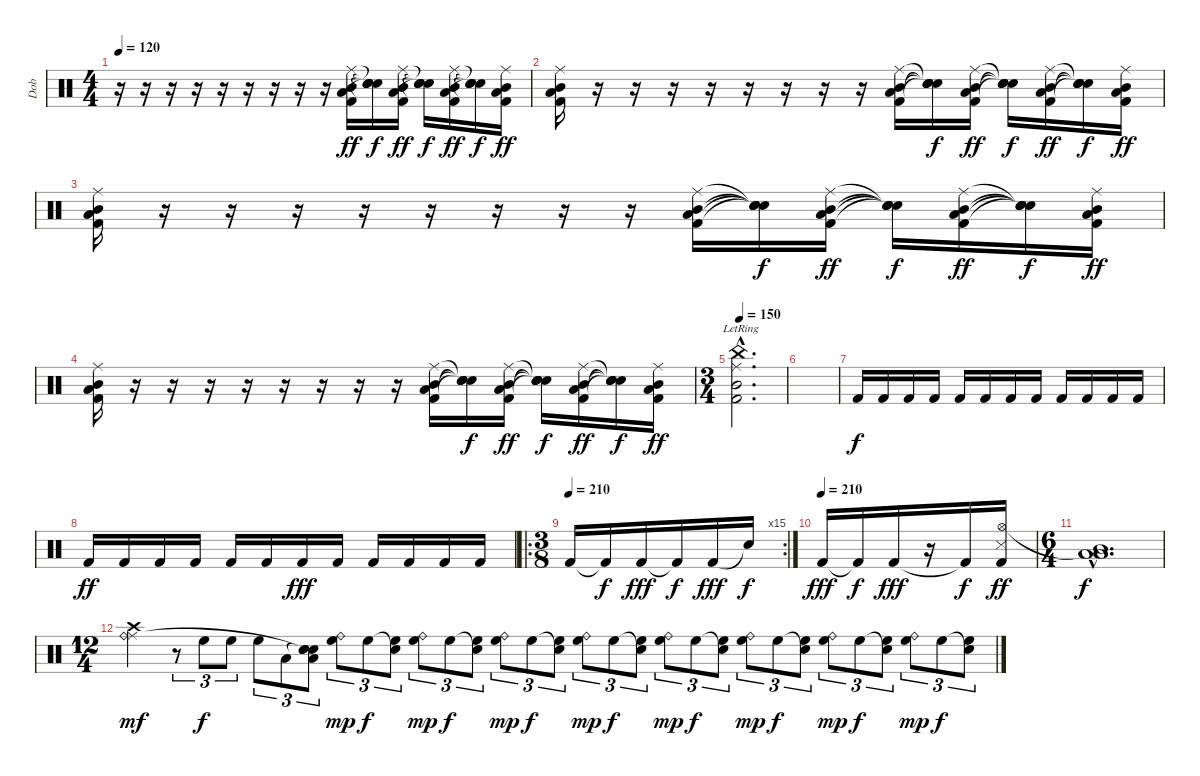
\track ("Dob" "Dob") {instrument percussion}
\staff {score}
\articulation defaults
\ts (4 4)
\tempo 120
\clef neutral
\ks c
r.16{dy ff} r.16 r.16 r.16 r.16 r.16 r.16 r.16 r.16 ("Ride (middle)" "Mid Tom (hit)" "Low Tom (hit)" "Kick (hit) 2").16 ("Snare (hit)"{t} "Snare (hit)"{t} "Snare (hit)"{t} "Snare (hit)"{t}).16{dy f} ("Ride (middle)" "Mid Tom (hit)" "Low Tom (hit)" "Kick (hit) 2").16{dy ff} ("Snare (hit)"{t} "Snare (hit)"{t} "Snare (hit)"{t} "Snare (hit)"{t}).16{dy f} ("Ride (middle)" "Mid Tom (hit)" "Low Tom (hit)" "Kick (hit) 2").16{dy ff} ("Snare (hit)"{t} "Snare (hit)"{t} "Snare (hit)"{t} "Snare (hit)"{t}).16{dy f} ("Ride (middle)" "Mid Tom (hit)" "Low Tom (hit)" "Kick (hit) 2").16{dy ff} |
("Ride (middle)" "Mid Tom (hit)" "Low Tom (hit)" "Kick (hit) 2").16 r.16 r.16 r.16 r.16 r.16 r.16 r.16 r.16 ("Ride (middle)" "Mid Tom (hit)" "Low Tom (hit)" "Kick (hit) 2").16 ("Snare (hit)"{t} "Snare (hit)"{t} "Snare (hit)"{t} "Snare (hit)"{t}).16{dy f} ("Ride (middle)" "Mid Tom (hit)" "Low Tom (hit)" "Kick (hit) 2").16{dy ff} ("Snare (hit)"{t} "Snare (hit)"{t} "Snare (hit)"{t} "Snare (hit)"{t}).16{dy f} ("Ride (middle)" "Mid Tom (hit)" "Low Tom (hit)" "Kick (hit) 2").16{dy ff} ("Snare (hit)"{t} "Snare (hit)"{t} "Snare (hit)"{t} "Snare (hit)"{t}).16{dy f} ("Ride (middle)" "Mid Tom (hit)" "Low Tom (hit)" "Kick (hit) 2").16{dy ff} |
("Ride (middle)" "Mid Tom (hit)" "Low Tom (hit)" "Kick (hit) 2").16 r.16 r.16 r.16 r.16 r.16 r.16 r.16 r.16 ("Ride (middle)" "Mid Tom (hit)" "Low Tom (hit)" "Kick (hit) 2").16 ("Snare (hit)"{t} "Snare (hit)"{t} "Snare (hit)"{t} "Snare (hit)"{t}).16{dy f} ("Ride (middle)" "Mid Tom (hit)" "Low Tom (hit)" "Kick (hit) 2").16{dy ff} ("Snare (hit)"{t} "Snare (hit)"{t} "Snare (hit)"{t} "Snare (hit)"{t}).16{dy f} ("Ride (middle)" "Mid Tom (hit)" "Low Tom (hit)" "Kick (hit) 2").16{dy ff} ("Snare (hit)"{t} "Snare (hit)"{t} "Snare (hit)"{t} "Snare (hit)"{t}).16{dy f} ("Ride (middle)" "Mid Tom (hit)" "Low Tom (hit)" "Kick (hit) 2").16{dy ff} |
("Ride (middle)" "Mid Tom (hit)" "Low Tom (hit)" "Kick (hit) 2").16 r.16 r.16 r.16 r.16 r.16 r.16 r.16 r.16 ("Ride (middle)" "Mid Tom (hit)" "Low Tom (hit)" "Kick (hit) 2").16 ("Snare (hit)"{t} "Snare (hit)"{t} "Snare (hit)"{t} "Snare (hit)"{t}).16{dy f} ("Ride (middle)" "Mid Tom (hit)" "Low Tom (hit)" "Kick (hit) 2").16{dy ff} ("Snare (hit)"{t} "Snare (hit)"{t} "Snare (hit)"{t} "Snare (hit)"{t}).16{dy f} ("Ride (middle)" "Mid Tom (hit)" "Low Tom (hit)" "Kick (hit) 2").16{dy ff} ("Snare (hit)"{t} "Snare (hit)"{t} "Snare (hit)"{t} "Snare (hit)"{t}).16{dy f} ("Ride (middle)" "Mid Tom (hit)" "Low Tom (hit)" "Kick (hit) 2").16{dy ff} |
\ts (3 4)
\tempo 150
("Ride (middle)"{hac lr} "China (hit)"{hac lr} "Mid Tom (hit)"{hac lr} "Kick (hit) 2"{hac lr}).2{d} |
|
"Kick (hit) 2".16{dy f volume 10} "Kick (hit) 2".16 "Kick (hit) 2".16 "Kick (hit) 2".16 "Kick (hit) 2".16 "Kick (hit) 2".16 "Kick (hit) 2".16 "Kick (hit) 2".16 "Kick (hit) 2".16 "Kick (hit) 2".16 "Kick (hit) 2".16 "Kick (hit) 2".16 |
"Kick (hit) 2".16{dy ff} "Kick (hit) 2".16 "Kick (hit) 2".16 "Kick (hit) 2".16 "Kick (hit) 2".16 "Kick (hit) 2".16 "Kick (hit) 2".16{dy fff} "Kick (hit) 2".16 "Kick (hit) 2".16 "Kick (hit) 2".16 "Kick (hit) 2".16 "Kick (hit) 2".16 |
\ro
\rc 15
\ts (3 8)
\tempo (210)
"Kick (hit) 2".16 "Kick (hit) 2"{t}.16{dy f} "Kick (hit) 2".16{dy fff} "Kick (hit) 2"{t}.16{dy f} "Kick (hit) 2".16{dy fff} "Snare (hit)"{t}.16{dy f} |
\tempo (210)
"Kick (hit) 2".16{dy fff} "Kick (hit) 2"{t}.16{dy f} "Kick (hit) 2".16{dy fff} r.16 "Kick (hit) 2"{t}.16{dy f} ("Hi-Hat (open)" "Snare (side stick) 3" "Kick (hit) 2").16{dy ff} |
\ts (6 4)
("Low Tom (hit)"{hac t} "Mid Tom (hit)"{hac} "Low Tom (hit)"{hac}).1{d dy f} |
\ts (12 4)
("Ride (middle)" "Ride (bell)" "Crash high (hit)").2{dy mf volume 4} r.8{tu (3 2)} "High Floor Tom (hit)".8{tu (3 2) dy f} "High Floor Tom (hit)".8{tu (3 2)} "High Floor Tom (hit)".8{tu (3 2)} "Low Tom (hit)".8{tu (3 2)} ("Snare (hit)"{t} "Snare (hit)"{t} "Low Floor Tom (hit)" "Snare (hit)").8{tu (3 2)} ("Ride (bell)" "High Floor Tom (hit)").8{tu (3 2) dy mp} "High Floor Tom (hit)".8{tu (3 2) dy f} ("Snare (hit)"{t} "High Floor Tom (hit)").8{tu (3 2)} ("Ride (bell)" "High Floor Tom (hit)").8{tu (3 2) dy mp} "High Floor Tom (hit)".8{tu (3 2) dy f} ("Snare (hit)"{t} "High Floor Tom (hit)").8{tu (3 2)} ("Ride (bell)" "High Floor Tom (hit)").8{tu (3 2) dy mp} "High Floor Tom (hit)".8{tu (3 2) dy f} ("Snare (hit)"{t} "High Floor Tom (hit)").8{tu (3 2)} ("Ride (bell)" "High Floor Tom (hit)").8{tu (3 2) dy mp} "High Floor Tom (hit)".8{tu (3 2) dy f} ("Snare (hit)"{t} "High Floor Tom (hit)").8{tu (3 2)} ("Ride (bell)" "High Floor Tom (hit)").8{tu (3 2) dy mp} "High Floor Tom (hit)".8{tu (3 2) dy f} ("Snare (hit)"{t} "High Floor Tom (hit)").8{tu (3 2)} ("Ride (bell)" "High Floor Tom (hit)").8{tu (3 2) dy mp} "High Floor Tom (hit)".8{tu (3 2) dy f} ("Snare (hit)"{t} "High Floor Tom (hit)").8{tu (3 2)} ("Ride (bell)" "High Floor Tom (hit)").8{tu (3 2) dy mp} "High Floor Tom (hit)".8{tu (3 2) dy f} ("Snare (hit)"{t} "High Floor Tom (hit)").8{tu (3 2)} ("Ride (bell)" "High Floor Tom (hit)").8{tu (3 2) dy mp} "High Floor Tom (hit)".8{tu (3 2) dy f} ("Snare (hit)"{t} "High Floor Tom (hit)").8{tu (3 2)}
